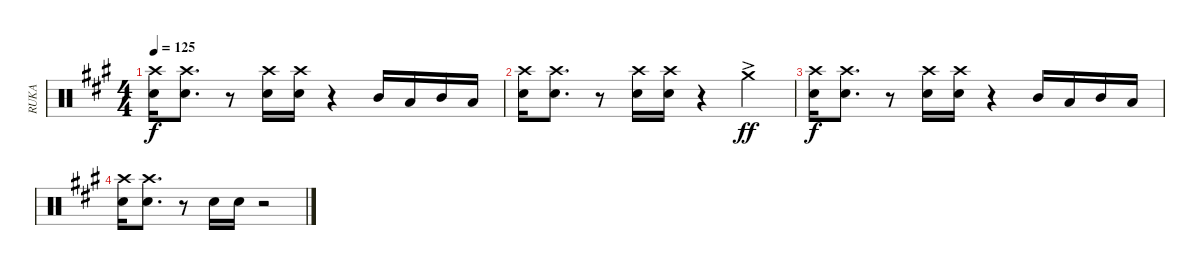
\track ("RUKA" "RUKA") {instrument percussion}
\staff {score}
\articulation defaults
\ts (4 4)
\tempo 125
\clef neutral
\ks a
("Crash high (hit)" "Snare (hit) 2").16{dy f} ("Crash high (hit)" "Snare (hit) 2").8{d} r.8 ("Crash high (hit)" "Snare (hit) 2").16 ("Crash high (hit)" "Snare (hit) 2").16 r.4 "Mid Tom (hit)".16 "Low Tom (hit)".16 "Mid Tom (hit)".16 "Low Tom (hit)".16 |
("Crash high (hit)" "Snare (hit) 2").16 ("Crash high (hit)" "Snare (hit) 2").8{d} r.8 ("Crash high (hit)" "Snare (hit) 2").16 ("Crash high (hit)" "Snare (hit) 2").16 r.4 "Crash medium (hit)"{ac}.4{dy ff} |
("Crash high (hit)" "Snare (hit) 2").16{dy f} ("Crash high (hit)" "Snare (hit) 2").8{d} r.8 ("Crash high (hit)" "Snare (hit) 2").16 ("Crash high (hit)" "Snare (hit) 2").16 r.4 "Mid Tom (hit)".16 "Low Tom (hit)".16 "Mid Tom (hit)".16 "Low Tom (hit)".16 |
("Crash high (hit)" "Snare (hit) 2").16 ("Crash high (hit)" "Snare (hit) 2").8{d} r.8 "Snare (hit) 2".16 "Snare (hit) 2".16 r.2
